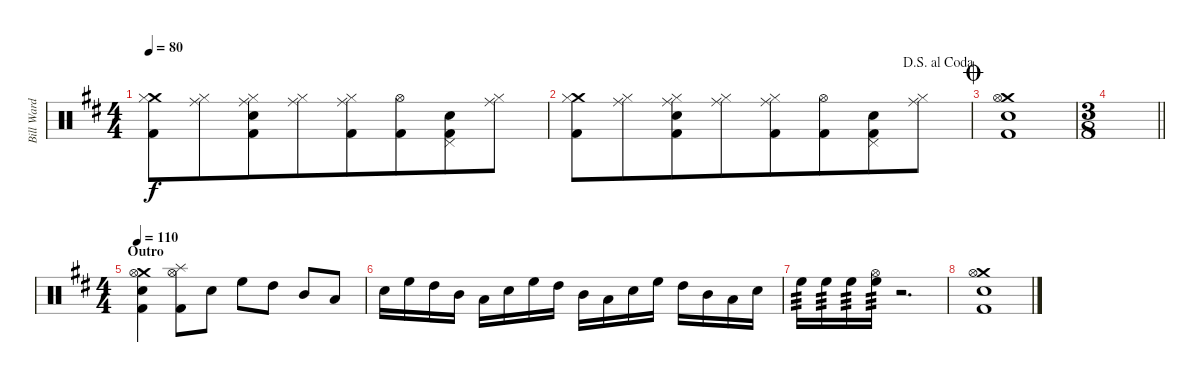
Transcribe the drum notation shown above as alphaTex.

\track ("Bill Ward" "Bill Ward") {instrument percussion}
\staff {score}
\articulation defaults
\ts (4 4)
\tempo 80
\clef neutral
\ks d
("Crash medium (hit)" "Hi-Hat (closed)" "Kick (hit) 2").8{dy f} ("Ride (middle)" "Hi-Hat (closed)").8{beam merge} ("Ride (middle)" "Hi-Hat (closed)" "Snare (hit) 2" "Kick (hit) 2").8 ("Ride (middle)" "Hi-Hat (closed)").8{beam merge} ("Ride (middle)" "Hi-Hat (closed)" "Kick (hit) 2").8 ("Hi-Hat (open)" "Kick (hit) 2").8{beam merge} ("Pedal Hi-Hat (hit)" "Snare (hit) 2" "Kick (hit) 2").8 ("Ride (middle)" "Hi-Hat (closed)").8 |
\jump dalsegnoalcoda
("Crash medium (hit)" "Hi-Hat (closed)" "Kick (hit) 2").8 ("Ride (middle)" "Hi-Hat (closed)").8{beam merge} ("Ride (middle)" "Hi-Hat (closed)" "Snare (hit) 2" "Kick (hit) 2").8 ("Ride (middle)" "Hi-Hat (closed)").8{beam merge} ("Ride (middle)" "Hi-Hat (closed)" "Kick (hit) 2").8 ("Hi-Hat (open)" "Kick (hit) 2").8{beam merge} ("Pedal Hi-Hat (hit)" "Snare (hit) 2" "Kick (hit) 2").8 ("Ride (middle)" "Hi-Hat (closed)").8 |
\jump coda
("Crash medium (hit)" "Hi-Hat (open)" "Snare (hit) 2" "Kick (hit) 2").1 |
\ts (3 8)
\barLineRight lightlight
|
\ts (4 4)
\section ("" "Outro")
\tempo 110
("Crash medium (hit)" "Hi-Hat (open)" "Snare (hit) 2" "Kick (hit) 2").4{beam merge} ("Splash (hit)" "Hi-Hat (open)" "Kick (hit) 2").8 "Snare (hit) 2".8 "High Floor Tom (hit)".8 "High Tom (hit)".8 "Mid Tom (hit)".8 "Low Tom (hit)".8 |
"Snare (hit) 2".16 "High Floor Tom (hit)".16 "High Tom (hit)".16 "Mid Tom (hit)".16 "Low Tom (hit)".16 "Snare (hit) 2".16 "High Floor Tom (hit)".16 "High Tom (hit)".16 "Mid Tom (hit)".16 "Low Tom (hit)".16 "Snare (hit) 2".16 "High Floor Tom (hit)".16 "High Tom (hit)".16 "Mid Tom (hit)".16 "Low Tom (hit)".16 "Snare (hit) 2".16 |
"High Floor Tom (hit)".16{tp 3} "High Floor Tom (hit)".16{tp 3} "High Floor Tom (hit)".16{tp 3} ("Hi-Hat (open)" "High Floor Tom (hit)").16{tp 3} r.2{d} |
("Crash medium (hit)" "Hi-Hat (open)" "Snare (hit) 2" "Kick (hit) 2").1
